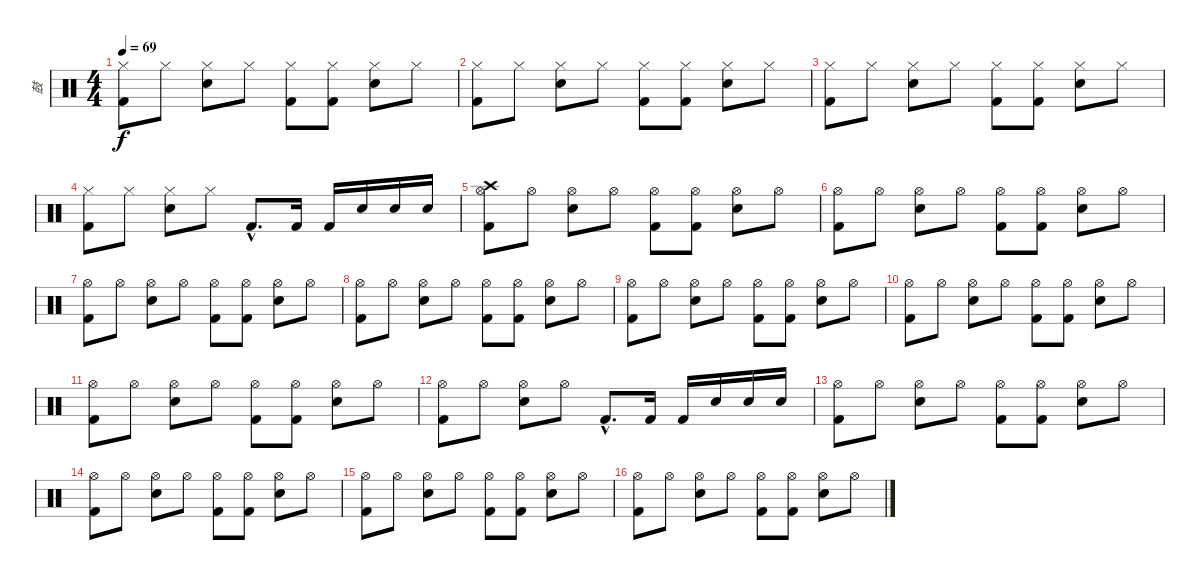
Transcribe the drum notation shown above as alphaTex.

\track ("鼓" "鼓") {instrument percussion}
\staff {score}
\articulation defaults
\ts (4 4)
\tempo 69
\clef neutral
\ks c
("Hi-Hat (closed)" "Kick (hit) 2").8{dy f} "Hi-Hat (closed)".8 ("Hi-Hat (closed)" "Snare (hit) 2").8 "Hi-Hat (closed)".8 ("Hi-Hat (closed)" "Kick (hit) 2").8 ("Hi-Hat (closed)" "Kick (hit) 2").8 ("Hi-Hat (closed)" "Snare (hit) 2").8 "Hi-Hat (closed)".8 |
("Hi-Hat (closed)" "Kick (hit) 2").8 "Hi-Hat (closed)".8 ("Hi-Hat (closed)" "Snare (hit) 2").8 "Hi-Hat (closed)".8 ("Hi-Hat (closed)" "Kick (hit) 2").8 ("Hi-Hat (closed)" "Kick (hit) 2").8 ("Hi-Hat (closed)" "Snare (hit) 2").8 "Hi-Hat (closed)".8 |
("Hi-Hat (closed)" "Kick (hit) 2").8 "Hi-Hat (closed)".8 ("Hi-Hat (closed)" "Snare (hit) 2").8 "Hi-Hat (closed)".8 ("Hi-Hat (closed)" "Kick (hit) 2").8 ("Hi-Hat (closed)" "Kick (hit) 2").8 ("Hi-Hat (closed)" "Snare (hit) 2").8 "Hi-Hat (closed)".8 |
("Hi-Hat (closed)" "Kick (hit) 2").8 "Hi-Hat (closed)".8 ("Hi-Hat (closed)" "Snare (hit) 2").8 "Hi-Hat (closed)".8 "Kick (hit) 2"{hac}.8{d} "Kick (hit) 2".16 "Kick (hit) 2".16 "Snare (hit) 2".16 "Snare (hit) 2".16 "Snare (hit) 2".16 |
("Crash high (hit)" "Hi-Hat (open)" "Kick (hit) 2").8 "Hi-Hat (open)".8 ("Hi-Hat (open)" "Snare (hit) 2").8 "Hi-Hat (open)".8 ("Hi-Hat (open)" "Kick (hit) 2").8 ("Hi-Hat (open)" "Kick (hit) 2").8 ("Hi-Hat (open)" "Snare (hit) 2").8 "Hi-Hat (open)".8 |
("Hi-Hat (open)" "Kick (hit) 2").8 "Hi-Hat (open)".8 ("Hi-Hat (open)" "Snare (hit) 2").8 "Hi-Hat (open)".8 ("Hi-Hat (open)" "Kick (hit) 2").8 ("Hi-Hat (open)" "Kick (hit) 2").8 ("Hi-Hat (open)" "Snare (hit) 2").8 "Hi-Hat (open)".8 |
("Hi-Hat (open)" "Kick (hit) 2").8 "Hi-Hat (open)".8 ("Hi-Hat (open)" "Snare (hit) 2").8 "Hi-Hat (open)".8 ("Hi-Hat (open)" "Kick (hit) 2").8 ("Hi-Hat (open)" "Kick (hit) 2").8 ("Hi-Hat (open)" "Snare (hit) 2").8 "Hi-Hat (open)".8 |
("Hi-Hat (open)" "Kick (hit) 2").8 "Hi-Hat (open)".8 ("Hi-Hat (open)" "Snare (hit) 2").8 "Hi-Hat (open)".8 ("Hi-Hat (open)" "Kick (hit) 2").8 ("Hi-Hat (open)" "Kick (hit) 2").8 ("Hi-Hat (open)" "Snare (hit) 2").8 "Hi-Hat (open)".8 |
("Hi-Hat (open)" "Kick (hit) 2").8 "Hi-Hat (open)".8 ("Hi-Hat (open)" "Snare (hit) 2").8 "Hi-Hat (open)".8 ("Hi-Hat (open)" "Kick (hit) 2").8 ("Hi-Hat (open)" "Kick (hit) 2").8 ("Hi-Hat (open)" "Snare (hit) 2").8 "Hi-Hat (open)".8 |
("Hi-Hat (open)" "Kick (hit) 2").8 "Hi-Hat (open)".8 ("Hi-Hat (open)" "Snare (hit) 2").8 "Hi-Hat (open)".8 ("Hi-Hat (open)" "Kick (hit) 2").8 ("Hi-Hat (open)" "Kick (hit) 2").8 ("Hi-Hat (open)" "Snare (hit) 2").8 "Hi-Hat (open)".8 |
("Hi-Hat (open)" "Kick (hit) 2").8 "Hi-Hat (open)".8 ("Hi-Hat (open)" "Snare (hit) 2").8 "Hi-Hat (open)".8 ("Hi-Hat (open)" "Kick (hit) 2").8 ("Hi-Hat (open)" "Kick (hit) 2").8 ("Hi-Hat (open)" "Snare (hit) 2").8 "Hi-Hat (open)".8 |
("Hi-Hat (open)" "Kick (hit) 2").8 "Hi-Hat (open)".8 ("Hi-Hat (open)" "Snare (hit) 2").8 "Hi-Hat (open)".8 "Kick (hit) 2"{hac}.8{d} "Kick (hit) 2".16 "Kick (hit) 2".16 "Snare (hit) 2".16 "Snare (hit) 2".16 "Snare (hit) 2".16 |
("Hi-Hat (open)" "Kick (hit) 2").8 "Hi-Hat (open)".8 ("Hi-Hat (open)" "Snare (hit) 2").8 "Hi-Hat (open)".8 ("Hi-Hat (open)" "Kick (hit) 2").8 ("Hi-Hat (open)" "Kick (hit) 2").8 ("Hi-Hat (open)" "Snare (hit) 2").8 "Hi-Hat (open)".8 |
("Hi-Hat (open)" "Kick (hit) 2").8 "Hi-Hat (open)".8 ("Hi-Hat (open)" "Snare (hit) 2").8 "Hi-Hat (open)".8 ("Hi-Hat (open)" "Kick (hit) 2").8 ("Hi-Hat (open)" "Kick (hit) 2").8 ("Hi-Hat (open)" "Snare (hit) 2").8 "Hi-Hat (open)".8 |
("Hi-Hat (open)" "Kick (hit) 2").8 "Hi-Hat (open)".8 ("Hi-Hat (open)" "Snare (hit) 2").8 "Hi-Hat (open)".8 ("Hi-Hat (open)" "Kick (hit) 2").8 ("Hi-Hat (open)" "Kick (hit) 2").8 ("Hi-Hat (open)" "Snare (hit) 2").8 "Hi-Hat (open)".8 |
("Hi-Hat (open)" "Kick (hit) 2").8 "Hi-Hat (open)".8 ("Hi-Hat (open)" "Snare (hit) 2").8 "Hi-Hat (open)".8 ("Hi-Hat (open)" "Kick (hit) 2").8 ("Hi-Hat (open)" "Kick (hit) 2").8 ("Hi-Hat (open)" "Snare (hit) 2").8 "Hi-Hat (open)".8
